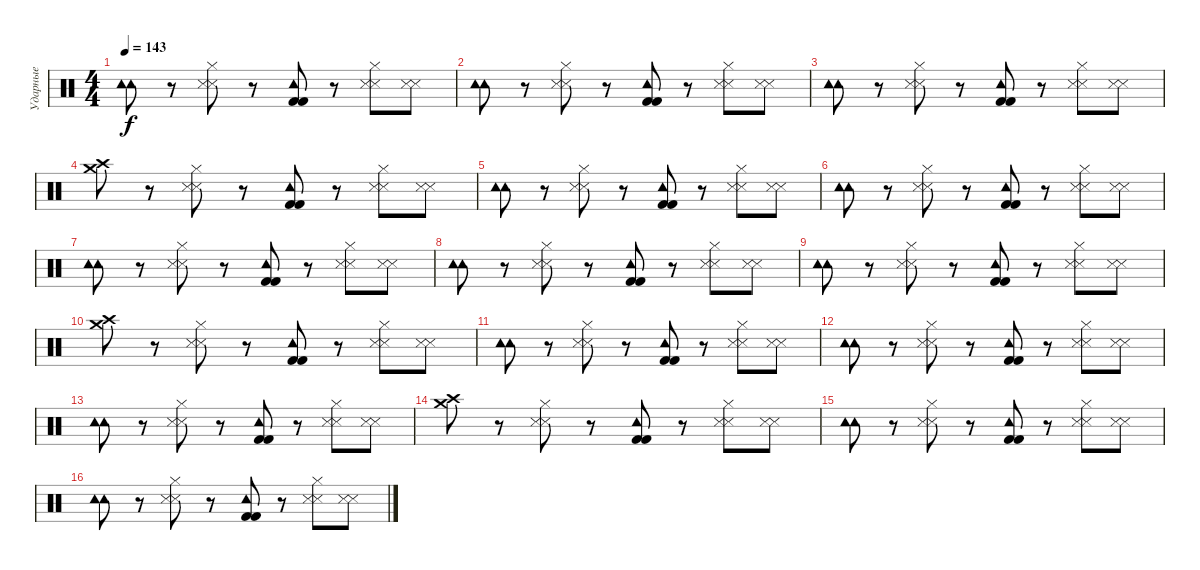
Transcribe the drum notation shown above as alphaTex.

\track ("Ударные" "Ударные") {instrument percussion}
\staff {score}
\articulation defaults
\ts (4 4)
\tempo 143
\clef neutral
\ks c
("Tambourine (hit)" "Tambourine (hit)").8{dy f} r.8 ("Hi-Hat (closed)" "Metronome (hit)" "Metronome (hit)").8 r.8 ("Tambourine (hit)" "Kick (hit) 2" "Kick (hit) 2").8 r.8 ("Hi-Hat (closed)" "Metronome (hit)" "Metronome (hit)").8 ("Metronome (hit)" "Metronome (hit)").8 |
("Tambourine (hit)" "Tambourine (hit)").8 r.8 ("Hi-Hat (closed)" "Metronome (hit)" "Metronome (hit)").8 r.8 ("Tambourine (hit)" "Kick (hit) 2" "Kick (hit) 2").8 r.8 ("Hi-Hat (closed)" "Metronome (hit)" "Metronome (hit)").8 ("Metronome (hit)" "Metronome (hit)").8 |
("Tambourine (hit)" "Tambourine (hit)").8 r.8 ("Hi-Hat (closed)" "Metronome (hit)" "Metronome (hit)").8 r.8 ("Tambourine (hit)" "Kick (hit) 2" "Kick (hit) 2").8 r.8 ("Hi-Hat (closed)" "Metronome (hit)" "Metronome (hit)").8 ("Metronome (hit)" "Metronome (hit)").8 |
("Crash medium (hit)" "Crash high (hit)").8 r.8 ("Hi-Hat (closed)" "Metronome (hit)" "Metronome (hit)").8 r.8 ("Tambourine (hit)" "Kick (hit) 2" "Kick (hit) 2").8 r.8 ("Hi-Hat (closed)" "Metronome (hit)" "Metronome (hit)").8 ("Metronome (hit)" "Metronome (hit)").8 |
("Tambourine (hit)" "Tambourine (hit)").8 r.8 ("Hi-Hat (closed)" "Metronome (hit)" "Metronome (hit)").8 r.8 ("Tambourine (hit)" "Kick (hit) 2" "Kick (hit) 2").8 r.8 ("Hi-Hat (closed)" "Metronome (hit)" "Metronome (hit)").8 ("Metronome (hit)" "Metronome (hit)").8 |
("Tambourine (hit)" "Tambourine (hit)").8 r.8 ("Hi-Hat (closed)" "Metronome (hit)" "Metronome (hit)").8 r.8 ("Tambourine (hit)" "Kick (hit) 2" "Kick (hit) 2").8 r.8 ("Hi-Hat (closed)" "Metronome (hit)" "Metronome (hit)").8 ("Metronome (hit)" "Metronome (hit)").8 |
("Tambourine (hit)" "Tambourine (hit)").8 r.8 ("Hi-Hat (closed)" "Metronome (hit)" "Metronome (hit)").8 r.8 ("Tambourine (hit)" "Kick (hit) 2" "Kick (hit) 2").8 r.8 ("Hi-Hat (closed)" "Metronome (hit)" "Metronome (hit)").8 ("Metronome (hit)" "Metronome (hit)").8 |
("Tambourine (hit)" "Tambourine (hit)").8 r.8 ("Hi-Hat (closed)" "Metronome (hit)" "Metronome (hit)").8 r.8 ("Tambourine (hit)" "Kick (hit) 2" "Kick (hit) 2").8 r.8 ("Hi-Hat (closed)" "Metronome (hit)" "Metronome (hit)").8 ("Metronome (hit)" "Metronome (hit)").8 |
("Tambourine (hit)" "Tambourine (hit)").8 r.8 ("Hi-Hat (closed)" "Metronome (hit)" "Metronome (hit)").8 r.8 ("Tambourine (hit)" "Kick (hit) 2" "Kick (hit) 2").8 r.8 ("Hi-Hat (closed)" "Metronome (hit)" "Metronome (hit)").8 ("Metronome (hit)" "Metronome (hit)").8 |
("Crash medium (hit)" "Crash high (hit)").8 r.8 ("Hi-Hat (closed)" "Metronome (hit)" "Metronome (hit)").8 r.8 ("Tambourine (hit)" "Kick (hit) 2" "Kick (hit) 2").8 r.8 ("Hi-Hat (closed)" "Metronome (hit)" "Metronome (hit)").8 ("Metronome (hit)" "Metronome (hit)").8 |
("Tambourine (hit)" "Tambourine (hit)").8 r.8 ("Hi-Hat (closed)" "Metronome (hit)" "Metronome (hit)").8 r.8 ("Tambourine (hit)" "Kick (hit) 2" "Kick (hit) 2").8 r.8 ("Hi-Hat (closed)" "Metronome (hit)" "Metronome (hit)").8 ("Metronome (hit)" "Metronome (hit)").8 |
("Tambourine (hit)" "Tambourine (hit)").8 r.8 ("Hi-Hat (closed)" "Metronome (hit)" "Metronome (hit)").8 r.8 ("Tambourine (hit)" "Kick (hit) 2" "Kick (hit) 2").8 r.8 ("Hi-Hat (closed)" "Metronome (hit)" "Metronome (hit)").8 ("Metronome (hit)" "Metronome (hit)").8 |
("Tambourine (hit)" "Tambourine (hit)").8 r.8 ("Hi-Hat (closed)" "Metronome (hit)" "Metronome (hit)").8 r.8 ("Tambourine (hit)" "Kick (hit) 2" "Kick (hit) 2").8 r.8 ("Hi-Hat (closed)" "Metronome (hit)" "Metronome (hit)").8 ("Metronome (hit)" "Metronome (hit)").8 |
("Crash medium (hit)" "Crash high (hit)").8 r.8 ("Hi-Hat (closed)" "Metronome (hit)" "Metronome (hit)").8 r.8 ("Tambourine (hit)" "Kick (hit) 2" "Kick (hit) 2").8 r.8 ("Hi-Hat (closed)" "Metronome (hit)" "Metronome (hit)").8 ("Metronome (hit)" "Metronome (hit)").8 |
("Tambourine (hit)" "Tambourine (hit)").8 r.8 ("Hi-Hat (closed)" "Metronome (hit)" "Metronome (hit)").8 r.8 ("Tambourine (hit)" "Kick (hit) 2" "Kick (hit) 2").8 r.8 ("Hi-Hat (closed)" "Metronome (hit)" "Metronome (hit)").8 ("Metronome (hit)" "Metronome (hit)").8 |
("Tambourine (hit)" "Tambourine (hit)").8 r.8 ("Hi-Hat (closed)" "Metronome (hit)" "Metronome (hit)").8 r.8 ("Tambourine (hit)" "Kick (hit) 2" "Kick (hit) 2").8 r.8 ("Hi-Hat (closed)" "Metronome (hit)" "Metronome (hit)").8 ("Metronome (hit)" "Metronome (hit)").8
